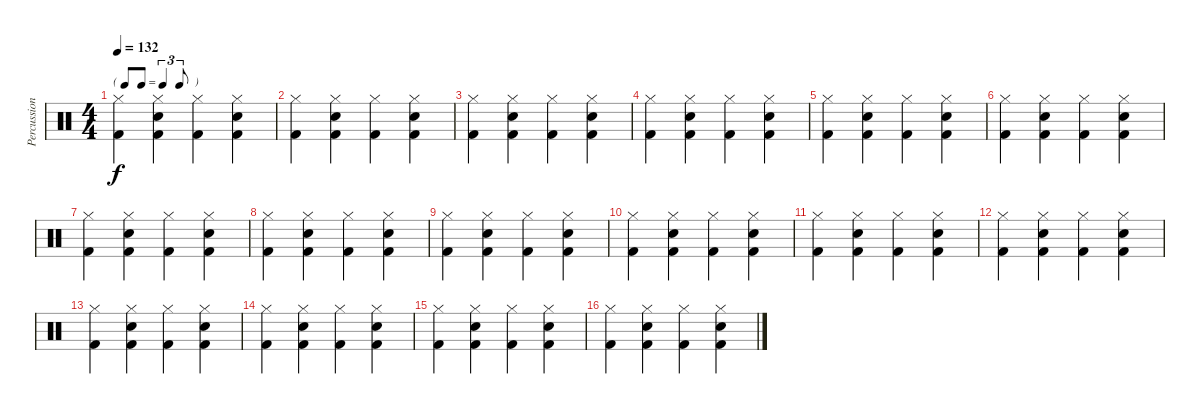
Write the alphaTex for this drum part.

\track ("Percussion" "Percussion") {instrument percussion}
\staff {score}
\articulation defaults
\ts (4 4)
\tf triplet8th
\tempo 132
\clef neutral
\ks c
("Hi-Hat (closed)" "Kick (hit) 2").4{dy f} ("Hi-Hat (closed)" "Snare (hit) 2" "Kick (hit) 2").4 ("Hi-Hat (closed)" "Kick (hit) 2").4 ("Hi-Hat (closed)" "Snare (hit) 2" "Kick (hit) 2").4 |
("Hi-Hat (closed)" "Kick (hit) 2").4 ("Hi-Hat (closed)" "Snare (hit) 2" "Kick (hit) 2").4 ("Hi-Hat (closed)" "Kick (hit) 2").4 ("Hi-Hat (closed)" "Snare (hit) 2" "Kick (hit) 2").4 |
("Hi-Hat (closed)" "Kick (hit) 2").4 ("Hi-Hat (closed)" "Snare (hit) 2" "Kick (hit) 2").4 ("Hi-Hat (closed)" "Kick (hit) 2").4 ("Hi-Hat (closed)" "Snare (hit) 2" "Kick (hit) 2").4 |
("Hi-Hat (closed)" "Kick (hit) 2").4 ("Hi-Hat (closed)" "Snare (hit) 2" "Kick (hit) 2").4 ("Hi-Hat (closed)" "Kick (hit) 2").4 ("Hi-Hat (closed)" "Snare (hit) 2" "Kick (hit) 2").4 |
("Hi-Hat (closed)" "Kick (hit) 2").4 ("Hi-Hat (closed)" "Snare (hit) 2" "Kick (hit) 2").4 ("Hi-Hat (closed)" "Kick (hit) 2").4 ("Hi-Hat (closed)" "Snare (hit) 2" "Kick (hit) 2").4 |
("Hi-Hat (closed)" "Kick (hit) 2").4 ("Hi-Hat (closed)" "Snare (hit) 2" "Kick (hit) 2").4 ("Hi-Hat (closed)" "Kick (hit) 2").4 ("Hi-Hat (closed)" "Snare (hit) 2" "Kick (hit) 2").4 |
("Hi-Hat (closed)" "Kick (hit) 2").4 ("Hi-Hat (closed)" "Snare (hit) 2" "Kick (hit) 2").4 ("Hi-Hat (closed)" "Kick (hit) 2").4 ("Hi-Hat (closed)" "Snare (hit) 2" "Kick (hit) 2").4 |
("Hi-Hat (closed)" "Kick (hit) 2").4 ("Hi-Hat (closed)" "Snare (hit) 2" "Kick (hit) 2").4 ("Hi-Hat (closed)" "Kick (hit) 2").4 ("Hi-Hat (closed)" "Snare (hit) 2" "Kick (hit) 2").4 |
("Hi-Hat (closed)" "Kick (hit) 2").4 ("Hi-Hat (closed)" "Snare (hit) 2" "Kick (hit) 2").4 ("Hi-Hat (closed)" "Kick (hit) 2").4 ("Hi-Hat (closed)" "Snare (hit) 2" "Kick (hit) 2").4 |
("Hi-Hat (closed)" "Kick (hit) 2").4 ("Hi-Hat (closed)" "Snare (hit) 2" "Kick (hit) 2").4 ("Hi-Hat (closed)" "Kick (hit) 2").4 ("Hi-Hat (closed)" "Snare (hit) 2" "Kick (hit) 2").4 |
("Hi-Hat (closed)" "Kick (hit) 2").4 ("Hi-Hat (closed)" "Snare (hit) 2" "Kick (hit) 2").4 ("Hi-Hat (closed)" "Kick (hit) 2").4 ("Hi-Hat (closed)" "Snare (hit) 2" "Kick (hit) 2").4 |
("Hi-Hat (closed)" "Kick (hit) 2").4 ("Hi-Hat (closed)" "Snare (hit) 2" "Kick (hit) 2").4 ("Hi-Hat (closed)" "Kick (hit) 2").4 ("Hi-Hat (closed)" "Snare (hit) 2" "Kick (hit) 2").4 |
("Hi-Hat (closed)" "Kick (hit) 2").4 ("Hi-Hat (closed)" "Snare (hit) 2" "Kick (hit) 2").4 ("Hi-Hat (closed)" "Kick (hit) 2").4 ("Hi-Hat (closed)" "Snare (hit) 2" "Kick (hit) 2").4 |
("Hi-Hat (closed)" "Kick (hit) 2").4 ("Hi-Hat (closed)" "Snare (hit) 2" "Kick (hit) 2").4 ("Hi-Hat (closed)" "Kick (hit) 2").4 ("Hi-Hat (closed)" "Snare (hit) 2" "Kick (hit) 2").4 |
("Hi-Hat (closed)" "Kick (hit) 2").4 ("Hi-Hat (closed)" "Snare (hit) 2" "Kick (hit) 2").4 ("Hi-Hat (closed)" "Kick (hit) 2").4 ("Hi-Hat (closed)" "Snare (hit) 2" "Kick (hit) 2").4 |
("Hi-Hat (closed)" "Kick (hit) 2").4 ("Hi-Hat (closed)" "Snare (hit) 2" "Kick (hit) 2").4 ("Hi-Hat (closed)" "Kick (hit) 2").4 ("Hi-Hat (closed)" "Snare (hit) 2" "Kick (hit) 2").4
